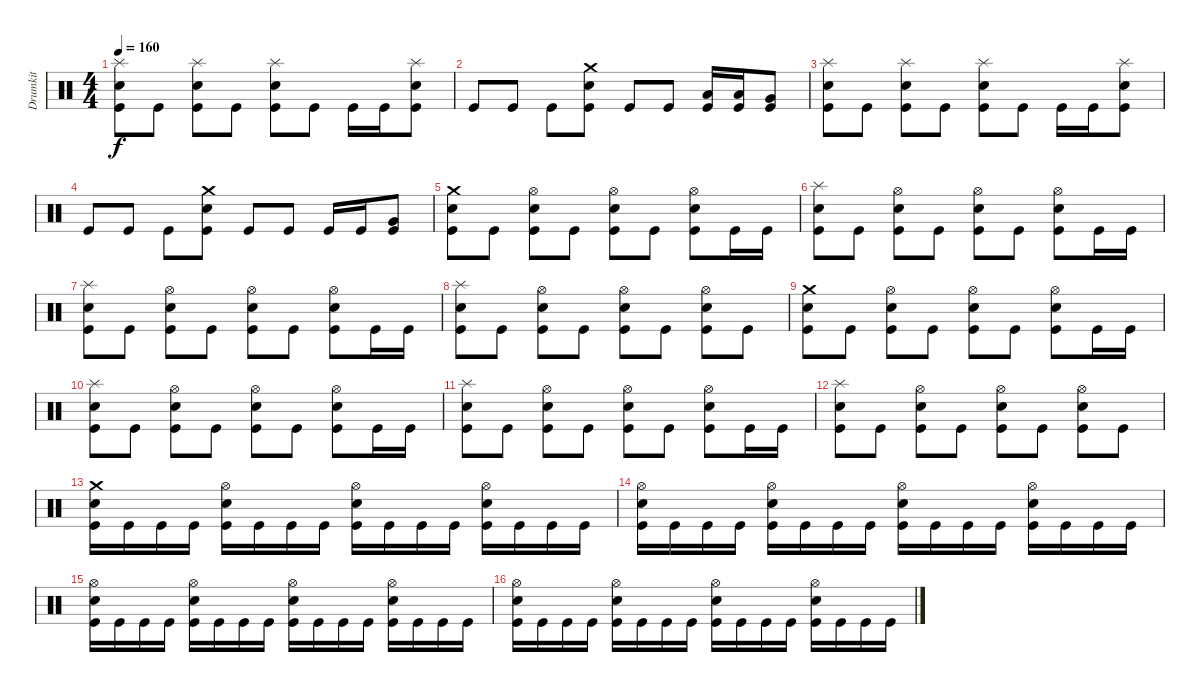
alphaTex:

\track ("Drumkit" "Drumkit") {instrument percussion}
\staff {score}
\articulation defaults
\ts (4 4)
\tempo 160
\clef neutral
\ks c
("Splash (hit)" "Snare (hit) 2" "Kick (hit)").8{dy f} "Kick (hit)".8 ("Splash (hit)" "Snare (hit) 2" "Kick (hit)").8 "Kick (hit)".8 ("Splash (hit)" "Snare (hit) 2" "Kick (hit)").8 "Kick (hit)".8 "Kick (hit)".16 "Kick (hit)".16 ("Splash (hit)" "Snare (hit) 2" "Kick (hit)").8 |
"Kick (hit)".8 "Kick (hit)".8 "Kick (hit)".8 ("Crash medium (hit)" "Snare (hit) 2" "Kick (hit)").8 "Kick (hit)".8 "Kick (hit)".8 ("Low Tom (hit)" "Kick (hit)").16 ("Low Tom (hit)" "Kick (hit)").16 ("Very Low Tom (hit)" "Kick (hit)").8 |
("Splash (hit)" "Snare (hit) 2" "Kick (hit)").8 "Kick (hit)".8 ("Splash (hit)" "Snare (hit) 2" "Kick (hit)").8 "Kick (hit)".8 ("Splash (hit)" "Snare (hit) 2" "Kick (hit)").8 "Kick (hit)".8 "Kick (hit)".16 "Kick (hit)".16 ("Splash (hit)" "Snare (hit) 2" "Kick (hit)").8 |
"Kick (hit)".8 "Kick (hit)".8 "Kick (hit)".8 ("Crash medium (hit)" "Snare (hit) 2" "Kick (hit)").8 "Kick (hit)".8 "Kick (hit)".8 "Kick (hit)".16 "Kick (hit)".16 ("Very Low Tom (hit)" "Kick (hit)").8 |
("Crash medium (hit)" "Snare (hit) 2" "Kick (hit)").8 "Kick (hit)".8 ("Hi-Hat (open)" "Snare (hit) 2" "Kick (hit)").8 "Kick (hit)".8 ("Hi-Hat (open)" "Snare (hit) 2" "Kick (hit)").8 "Kick (hit)".8 ("Hi-Hat (open)" "Snare (hit) 2" "Kick (hit)").8 "Kick (hit)".16 "Kick (hit)".16 |
("Splash (hit)" "Snare (hit) 2" "Kick (hit)").8 "Kick (hit)".8 ("Hi-Hat (open)" "Snare (hit) 2" "Kick (hit)").8 "Kick (hit)".8 ("Hi-Hat (open)" "Snare (hit) 2" "Kick (hit)").8 "Kick (hit)".8 ("Hi-Hat (open)" "Snare (hit) 2" "Kick (hit)").8 "Kick (hit)".16 "Kick (hit)".16 |
("Splash (hit)" "Snare (hit) 2" "Kick (hit)").8 "Kick (hit)".8 ("Hi-Hat (open)" "Snare (hit) 2" "Kick (hit)").8 "Kick (hit)".8 ("Hi-Hat (open)" "Snare (hit) 2" "Kick (hit)").8 "Kick (hit)".8 ("Hi-Hat (open)" "Snare (hit) 2" "Kick (hit)").8 "Kick (hit)".16 "Kick (hit)".16 |
("Splash (hit)" "Snare (hit) 2" "Kick (hit)").8 "Kick (hit)".8 ("Hi-Hat (open)" "Snare (hit) 2" "Kick (hit)").8 "Kick (hit)".8 ("Hi-Hat (open)" "Snare (hit) 2" "Kick (hit)").8 "Kick (hit)".8 ("Hi-Hat (open)" "Snare (hit) 2" "Kick (hit)").8 "Kick (hit)".8 |
("Crash medium (hit)" "Snare (hit) 2" "Kick (hit)").8 "Kick (hit)".8 ("Hi-Hat (open)" "Snare (hit) 2" "Kick (hit)").8 "Kick (hit)".8 ("Hi-Hat (open)" "Snare (hit) 2" "Kick (hit)").8 "Kick (hit)".8 ("Hi-Hat (open)" "Snare (hit) 2" "Kick (hit)").8 "Kick (hit)".16 "Kick (hit)".16 |
("Splash (hit)" "Snare (hit) 2" "Kick (hit)").8 "Kick (hit)".8 ("Hi-Hat (open)" "Snare (hit) 2" "Kick (hit)").8 "Kick (hit)".8 ("Hi-Hat (open)" "Snare (hit) 2" "Kick (hit)").8 "Kick (hit)".8 ("Hi-Hat (open)" "Snare (hit) 2" "Kick (hit)").8 "Kick (hit)".16 "Kick (hit)".16 |
("Splash (hit)" "Snare (hit) 2" "Kick (hit)").8 "Kick (hit)".8 ("Hi-Hat (open)" "Snare (hit) 2" "Kick (hit)").8 "Kick (hit)".8 ("Hi-Hat (open)" "Snare (hit) 2" "Kick (hit)").8 "Kick (hit)".8 ("Hi-Hat (open)" "Snare (hit) 2" "Kick (hit)").8 "Kick (hit)".16 "Kick (hit)".16 |
("Splash (hit)" "Snare (hit) 2" "Kick (hit)").8 "Kick (hit)".8 ("Hi-Hat (open)" "Snare (hit) 2" "Kick (hit)").8 "Kick (hit)".8 ("Hi-Hat (open)" "Snare (hit) 2" "Kick (hit)").8 "Kick (hit)".8 ("Hi-Hat (open)" "Snare (hit) 2" "Kick (hit)").8 "Kick (hit)".8 |
("Crash medium (hit)" "Snare (hit) 2" "Kick (hit)").16 "Kick (hit)".16 "Kick (hit)".16 "Kick (hit)".16 ("Hi-Hat (open)" "Snare (hit) 2" "Kick (hit)").16 "Kick (hit)".16 "Kick (hit)".16 "Kick (hit)".16 ("Hi-Hat (open)" "Snare (hit) 2" "Kick (hit)").16 "Kick (hit)".16 "Kick (hit)".16 "Kick (hit)".16 ("Hi-Hat (open)" "Snare (hit) 2" "Kick (hit)").16 "Kick (hit)".16 "Kick (hit)".16 "Kick (hit)".16 |
("Hi-Hat (open)" "Snare (hit) 2" "Kick (hit)").16 "Kick (hit)".16 "Kick (hit)".16 "Kick (hit)".16 ("Hi-Hat (open)" "Snare (hit) 2" "Kick (hit)").16 "Kick (hit)".16 "Kick (hit)".16 "Kick (hit)".16 ("Hi-Hat (open)" "Snare (hit) 2" "Kick (hit)").16 "Kick (hit)".16 "Kick (hit)".16 "Kick (hit)".16 ("Hi-Hat (open)" "Snare (hit) 2" "Kick (hit)").16 "Kick (hit)".16 "Kick (hit)".16 "Kick (hit)".16 |
("Hi-Hat (open)" "Snare (hit) 2" "Kick (hit)").16 "Kick (hit)".16 "Kick (hit)".16 "Kick (hit)".16 ("Hi-Hat (open)" "Snare (hit) 2" "Kick (hit)").16 "Kick (hit)".16 "Kick (hit)".16 "Kick (hit)".16 ("Hi-Hat (open)" "Snare (hit) 2" "Kick (hit)").16 "Kick (hit)".16 "Kick (hit)".16 "Kick (hit)".16 ("Hi-Hat (open)" "Snare (hit) 2" "Kick (hit)").16 "Kick (hit)".16 "Kick (hit)".16 "Kick (hit)".16 |
("Hi-Hat (open)" "Snare (hit) 2" "Kick (hit)").16 "Kick (hit)".16 "Kick (hit)".16 "Kick (hit)".16 ("Hi-Hat (open)" "Snare (hit) 2" "Kick (hit)").16 "Kick (hit)".16 "Kick (hit)".16 "Kick (hit)".16 ("Hi-Hat (open)" "Snare (hit) 2" "Kick (hit)").16 "Kick (hit)".16 "Kick (hit)".16 "Kick (hit)".16 ("Hi-Hat (open)" "Snare (hit) 2" "Kick (hit)").16 "Kick (hit)".16 "Kick (hit)".16 "Kick (hit)".16
